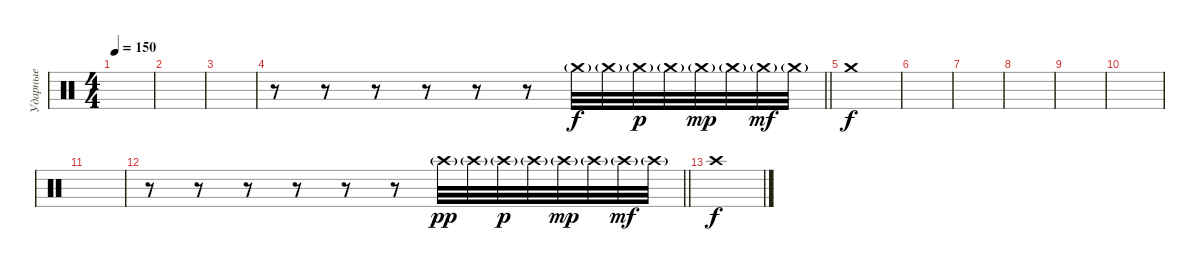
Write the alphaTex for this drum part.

\track ("Ударные" "Ударные") {instrument percussion}
\staff {score}
\articulation defaults
\ts (4 4)
\tempo 150
\clef neutral
\ks c
|
|
|
\barLineRight lightlight
r.8 r.8 r.8 r.8 r.8 r.8 "Crash medium (hit)"{g}.32 "Crash medium (hit)"{g}.32 "Crash medium (hit)"{g}.32{dy p} "Crash medium (hit)"{g}.32 "Crash medium (hit)"{g}.32{dy mp} "Crash medium (hit)"{g}.32 "Crash medium (hit)"{g}.32{dy mf} "Crash medium (hit)"{g}.32 |
\section ("" " ")
"Crash medium (hit)".1{dy f} |
|
|
|
|
|
|
\barLineRight lightlight
r.8 r.8 r.8 r.8 r.8 r.8 "Crash high (hit)"{g}.32{dy pp} "Crash high (hit)"{g}.32 "Crash high (hit)"{g}.32{dy p} "Crash high (hit)"{g}.32 "Crash high (hit)"{g}.32{dy mp} "Crash high (hit)"{g}.32 "Crash high (hit)"{g}.32{dy mf} "Crash high (hit)"{g}.32 |
\section ("" " ")
"Crash high (hit)".1{dy f}
